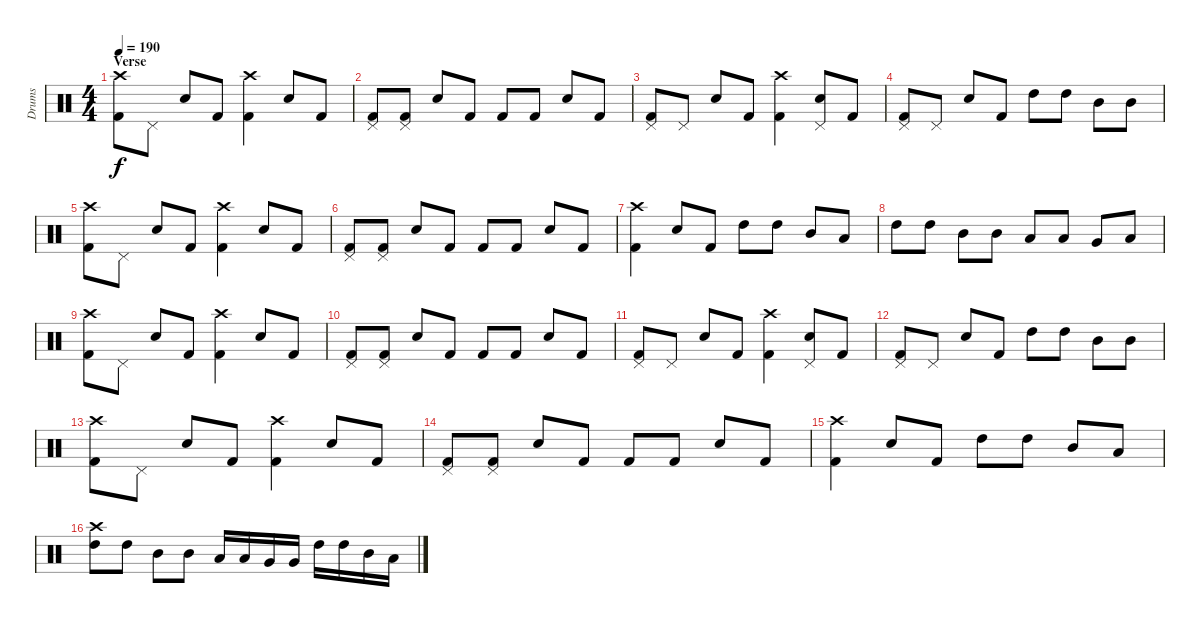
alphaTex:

\track ("Drums" "Drums") {instrument percussion}
\staff {score}
\articulation defaults
\ts (4 4)
\section ("" "Verse")
\tempo 190
\clef neutral
\ks c
("Crash high (hit)" "Kick (hit) 2").8{dy f} "Pedal Hi-Hat (hit)".8 "Electric Snare (hit)".8 "Kick (hit) 2".8 ("Crash high (hit)" "Kick (hit) 2").4 "Electric Snare (hit)".8 "Kick (hit) 2".8 |
("Pedal Hi-Hat (hit)" "Kick (hit) 2").8 ("Pedal Hi-Hat (hit)" "Kick (hit) 2").8 "Electric Snare (hit)".8 "Kick (hit) 2".8 "Kick (hit) 2".8 "Kick (hit) 2".8 "Electric Snare (hit)".8 "Kick (hit) 2".8 |
("Pedal Hi-Hat (hit)" "Kick (hit) 2").8 "Pedal Hi-Hat (hit)".8 "Electric Snare (hit)".8 "Kick (hit) 2".8 ("Crash high (hit)" "Kick (hit) 2").4 ("Pedal Hi-Hat (hit)" "Electric Snare (hit)").8 "Kick (hit) 2".8 |
("Pedal Hi-Hat (hit)" "Kick (hit) 2").8 "Pedal Hi-Hat (hit)".8 "Electric Snare (hit)".8 "Kick (hit) 2".8 "High Tom (hit)".8 "High Tom (hit)".8 "Mid Tom (hit)".8 "Mid Tom (hit)".8 |
("Crash high (hit)" "Kick (hit) 2").8 "Pedal Hi-Hat (hit)".8 "Electric Snare (hit)".8 "Kick (hit) 2".8 ("Crash high (hit)" "Kick (hit) 2").4 "Electric Snare (hit)".8 "Kick (hit) 2".8 |
("Pedal Hi-Hat (hit)" "Kick (hit) 2").8 ("Pedal Hi-Hat (hit)" "Kick (hit) 2").8 "Electric Snare (hit)".8 "Kick (hit) 2".8 "Kick (hit) 2".8 "Kick (hit) 2".8 "Electric Snare (hit)".8 "Kick (hit) 2".8 |
("Crash high (hit)" "Kick (hit) 2").4 "Electric Snare (hit)".8 "Kick (hit) 2".8 "High Tom (hit)".8 "High Tom (hit)".8 "Mid Tom (hit)".8 "Low Tom (hit)".8 |
"High Tom (hit)".8 "High Tom (hit)".8 "Mid Tom (hit)".8 "Mid Tom (hit)".8 "Low Tom (hit)".8 "Low Tom (hit)".8 "Very Low Tom (hit)".8 "Low Floor Tom (hit)".8 |
("Crash high (hit)" "Kick (hit) 2").8 "Pedal Hi-Hat (hit)".8 "Electric Snare (hit)".8 "Kick (hit) 2".8 ("Crash high (hit)" "Kick (hit) 2").4 "Electric Snare (hit)".8 "Kick (hit) 2".8 |
("Pedal Hi-Hat (hit)" "Kick (hit) 2").8 ("Pedal Hi-Hat (hit)" "Kick (hit) 2").8 "Electric Snare (hit)".8 "Kick (hit) 2".8 "Kick (hit) 2".8 "Kick (hit) 2".8 "Electric Snare (hit)".8 "Kick (hit) 2".8 |
("Pedal Hi-Hat (hit)" "Kick (hit) 2").8 "Pedal Hi-Hat (hit)".8 "Electric Snare (hit)".8 "Kick (hit) 2".8 ("Crash high (hit)" "Kick (hit) 2").4 ("Pedal Hi-Hat (hit)" "Electric Snare (hit)").8 "Kick (hit) 2".8 |
("Pedal Hi-Hat (hit)" "Kick (hit) 2").8 "Pedal Hi-Hat (hit)".8 "Electric Snare (hit)".8 "Kick (hit) 2".8 "High Tom (hit)".8 "High Tom (hit)".8 "Mid Tom (hit)".8 "Mid Tom (hit)".8 |
("Crash high (hit)" "Kick (hit) 2").8 "Pedal Hi-Hat (hit)".8 "Electric Snare (hit)".8 "Kick (hit) 2".8 ("Crash high (hit)" "Kick (hit) 2").4 "Electric Snare (hit)".8 "Kick (hit) 2".8 |
("Pedal Hi-Hat (hit)" "Kick (hit) 2").8 ("Pedal Hi-Hat (hit)" "Kick (hit) 2").8 "Electric Snare (hit)".8 "Kick (hit) 2".8 "Kick (hit) 2".8 "Kick (hit) 2".8 "Electric Snare (hit)".8 "Kick (hit) 2".8 |
("Crash high (hit)" "Kick (hit) 2").4 "Electric Snare (hit)".8 "Kick (hit) 2".8 "High Tom (hit)".8 "High Tom (hit)".8 "Mid Tom (hit)".8 "Low Tom (hit)".8 |
("High Tom (hit)" "Crash high (hit)").8 "High Tom (hit)".8 "Mid Tom (hit)".8 "Mid Tom (hit)".8 "Low Tom (hit)".16 "Low Tom (hit)".16 "Very Low Tom (hit)".16 "Very Low Tom (hit)".16 "High Tom (hit)".16 "High Tom (hit)".16 "Mid Tom (hit)".16 "Low Tom (hit)".16
